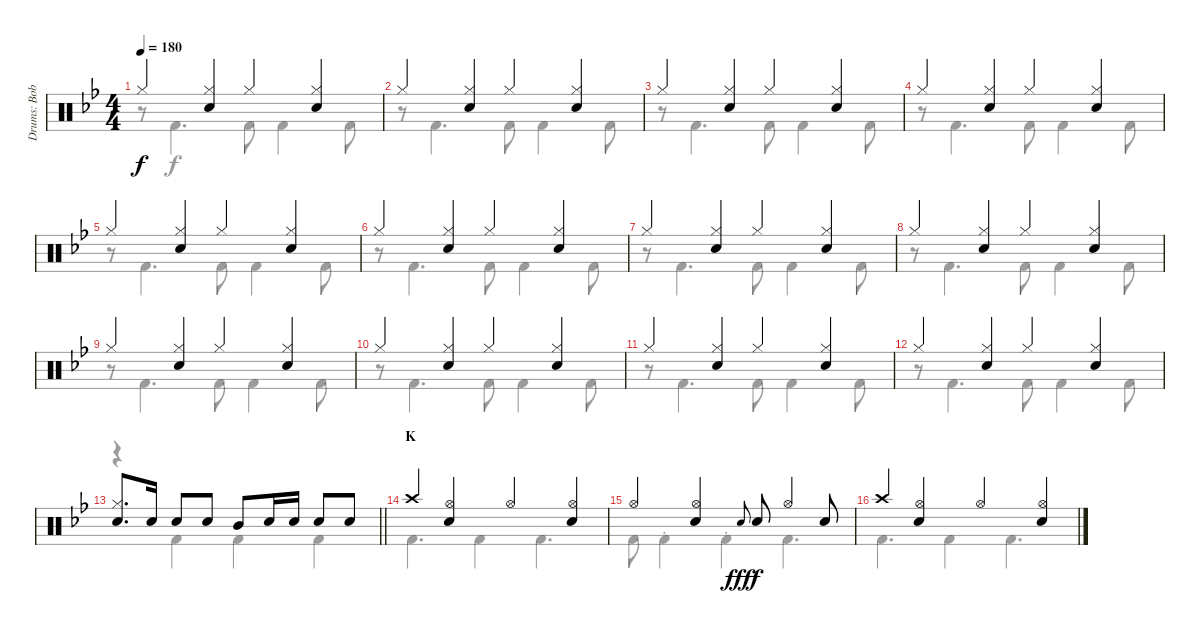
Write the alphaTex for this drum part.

\track ("Drums: Bobby" "Drums: Bob") {instrument percussion}
\staff {score}
\articulation defaults
\voice
\ts (4 4)
\tempo 180
\clef neutral
\ks bb "Hi-Hat (closed)".4{dy f}
("Hi-Hat (closed)" "Snare (hit) 2").4 "Hi-Hat (closed)".4 ("Hi-Hat (closed)" "Snare (hit) 2").4 |
"Hi-Hat (closed)".4 ("Hi-Hat (closed)" "Snare (hit) 2").4 "Hi-Hat (closed)".4 ("Hi-Hat (closed)" "Snare (hit) 2").4 |
"Hi-Hat (closed)".4 ("Hi-Hat (closed)" "Snare (hit) 2").4 "Hi-Hat (closed)".4 ("Hi-Hat (closed)" "Snare (hit) 2").4 |
"Hi-Hat (closed)".4 ("Hi-Hat (closed)" "Snare (hit) 2").4 "Hi-Hat (closed)".4 ("Hi-Hat (closed)" "Snare (hit) 2").4 |
"Hi-Hat (closed)".4 ("Hi-Hat (closed)" "Snare (hit) 2").4 "Hi-Hat (closed)".4 ("Hi-Hat (closed)" "Snare (hit) 2").4 |
"Hi-Hat (closed)".4 ("Hi-Hat (closed)" "Snare (hit) 2").4 "Hi-Hat (closed)".4 ("Hi-Hat (closed)" "Snare (hit) 2").4 |
"Hi-Hat (closed)".4 ("Hi-Hat (closed)" "Snare (hit) 2").4 "Hi-Hat (closed)".4 ("Hi-Hat (closed)" "Snare (hit) 2").4 |
"Hi-Hat (closed)".4 ("Hi-Hat (closed)" "Snare (hit) 2").4 "Hi-Hat (closed)".4 ("Hi-Hat (closed)" "Snare (hit) 2").4 |
"Hi-Hat (closed)".4 ("Hi-Hat (closed)" "Snare (hit) 2").4 "Hi-Hat (closed)".4 ("Hi-Hat (closed)" "Snare (hit) 2").4 |
"Hi-Hat (closed)".4 ("Hi-Hat (closed)" "Snare (hit) 2").4 "Hi-Hat (closed)".4 ("Hi-Hat (closed)" "Snare (hit) 2").4 |
"Hi-Hat (closed)".4 ("Hi-Hat (closed)" "Snare (hit) 2").4 "Hi-Hat (closed)".4 ("Hi-Hat (closed)" "Snare (hit) 2").4 |
"Hi-Hat (closed)".4 ("Hi-Hat (closed)" "Snare (hit) 2").4 "Hi-Hat (closed)".4 ("Hi-Hat (closed)" "Snare (hit) 2").4 |
\barLineRight lightlight
("Hi-Hat (closed)" "Snare (hit) 2").8{d} "Snare (hit) 2".16 "Snare (hit) 2".8 "Snare (hit) 2".8 "Mid Tom (hit)".8 "Snare (hit) 2".16 "Snare (hit) 2".16 "Snare (hit) 2".8 "Snare (hit) 2".8 |
\section ("" "K")
"Crash high (hit)".4 ("Hi-Hat (open)" "Snare (hit) 2").4 "Hi-Hat (open)".4 ("Hi-Hat (open)" "Snare (hit) 2").4 |
"Hi-Hat (open)".4 ("Hi-Hat (open)" "Snare (hit) 2").4 "Electric Snare (hit)".8{gr onbeat dy fff} "Snare (hit) 2".8{dy f} "Hi-Hat (open)".4 "Snare (hit) 2".8 |
"Crash high (hit)".4 ("Hi-Hat (open)" "Snare (hit) 2").4 "Hi-Hat (open)".4 ("Hi-Hat (open)" "Snare (hit) 2").4
\voice
\clef neutral
\ottava regular
\simile none
\ks bb
r.8{dy f} "Kick (hit) 2".4{d} "Kick (hit) 2".8 "Kick (hit) 2".4 "Kick (hit) 2".8 |
r.8 "Kick (hit) 2".4{d} "Kick (hit) 2".8 "Kick (hit) 2".4 "Kick (hit) 2".8 |
r.8 "Kick (hit) 2".4{d} "Kick (hit) 2".8 "Kick (hit) 2".4 "Kick (hit) 2".8 |
r.8 "Kick (hit) 2".4{d} "Kick (hit) 2".8 "Kick (hit) 2".4 "Kick (hit) 2".8 |
r.8 "Kick (hit) 2".4{d} "Kick (hit) 2".8 "Kick (hit) 2".4 "Kick (hit) 2".8 |
r.8 "Kick (hit) 2".4{d} "Kick (hit) 2".8 "Kick (hit) 2".4 "Kick (hit) 2".8 |
r.8 "Kick (hit) 2".4{d} "Kick (hit) 2".8 "Kick (hit) 2".4 "Kick (hit) 2".8 |
r.8 "Kick (hit) 2".4{d} "Kick (hit) 2".8 "Kick (hit) 2".4 "Kick (hit) 2".8 |
r.8 "Kick (hit) 2".4{d} "Kick (hit) 2".8 "Kick (hit) 2".4 "Kick (hit) 2".8 |
r.8 "Kick (hit) 2".4{d} "Kick (hit) 2".8 "Kick (hit) 2".4 "Kick (hit) 2".8 |
r.8 "Kick (hit) 2".4{d} "Kick (hit) 2".8 "Kick (hit) 2".4 "Kick (hit) 2".8 |
r.8 "Kick (hit) 2".4{d} "Kick (hit) 2".8 "Kick (hit) 2".4 "Kick (hit) 2".8 |
\barLineRight lightlight
r.4 "Kick (hit) 2".4 "Kick (hit) 2".4 "Kick (hit) 2".4 |
"Kick (hit) 2".4{d} "Kick (hit) 2".4 "Kick (hit) 2".4{d} |
"Kick (hit) 2".8 "Kick (hit) 2"{st}.4 "Kick (hit) 2"{st}.4 "Kick (hit) 2".4{d} |
"Kick (hit) 2".4{d} "Kick (hit) 2".4 "Kick (hit) 2".4{d}
